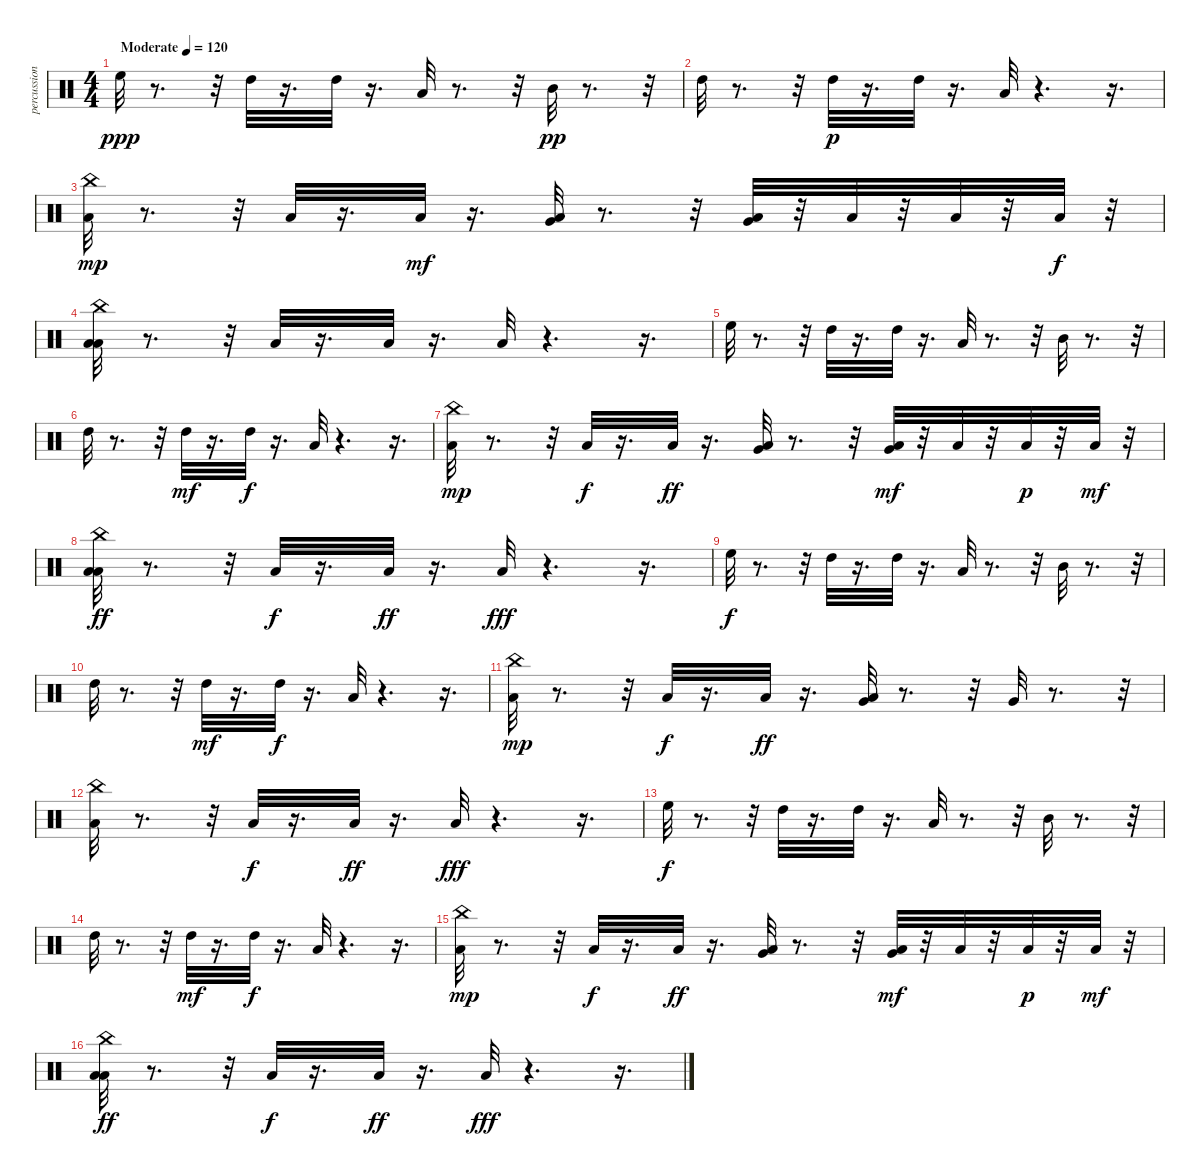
\track ("percussion" "percussion") {instrument percussion}
\staff {score}
\articulation defaults
\ts (4 4)
\tempo (120 "Moderate")
\clef neutral
\ks c "High Floor Tom (hit)".32{dy ppp}
r.8{d} r.32 "High Tom (hit)".32 r.16{d} "High Tom (hit)".32 r.16{d} "Low Tom (hit)".32 r.8{d} r.32 "Mid Tom (hit)".32{dy pp} r.8{d} r.32 |
"High Tom (hit)".32 r.8{d} r.32 "High Tom (hit)".32{dy p} r.16{d} "High Tom (hit)".32 r.16{d} "Low Tom (hit)".32 r.4{d} r.16{d} |
("Low Floor Tom (hit)" "China (hit)").32{dy mp} r.8{d} r.32 "Low Floor Tom (hit)".32 r.16{d} "Low Floor Tom (hit)".32{dy mf} r.16{d} ("Low Floor Tom (hit)" "Very Low Tom (hit)").32 r.8{d} r.32 ("Very Low Tom (hit)" "Low Floor Tom (hit)").32 r.32 "Low Floor Tom (hit)".32 r.32 "Low Floor Tom (hit)".32 r.32 "Low Floor Tom (hit)".32{dy f} r.32 |
("Low Floor Tom (hit)" "China (hit)" "Low Floor Tom (hit)").32 r.8{d} r.32 "Low Floor Tom (hit)".32 r.16{d} "Low Floor Tom (hit)".32 r.16{d} "Low Floor Tom (hit)".32 r.4{d} r.16{d} |
"High Floor Tom (hit)".32 r.8{d} r.32 "High Tom (hit)".32 r.16{d} "High Tom (hit)".32 r.16{d} "Low Tom (hit)".32 r.8{d} r.32 "Mid Tom (hit)".32 r.8{d} r.32 |
"High Tom (hit)".32 r.8{d} r.32 "High Tom (hit)".32{dy mf} r.16{d} "High Tom (hit)".32{dy f} r.16{d} "Low Tom (hit)".32 r.4{d} r.16{d} |
("Low Floor Tom (hit)" "China (hit)").32{dy mp} r.8{d} r.32 "Low Floor Tom (hit)".32{dy f} r.16{d} "Low Floor Tom (hit)".32{dy ff} r.16{d} ("Low Floor Tom (hit)" "Very Low Tom (hit)").32 r.8{d} r.32 ("Very Low Tom (hit)" "Low Floor Tom (hit)").32{dy mf} r.32 "Low Floor Tom (hit)".32 r.32 "Low Floor Tom (hit)".32{dy p} r.32 "Low Floor Tom (hit)".32{dy mf} r.32 |
("Low Floor Tom (hit)" "China (hit)" "Low Floor Tom (hit)").32{dy ff} r.8{d} r.32 "Low Floor Tom (hit)".32{dy f} r.16{d} "Low Floor Tom (hit)".32{dy ff} r.16{d} "Low Floor Tom (hit)".32{dy fff} r.4{d} r.16{d} |
"High Floor Tom (hit)".32{dy f} r.8{d} r.32 "High Tom (hit)".32 r.16{d} "High Tom (hit)".32 r.16{d} "Low Tom (hit)".32 r.8{d} r.32 "Mid Tom (hit)".32 r.8{d} r.32 |
"High Tom (hit)".32 r.8{d} r.32 "High Tom (hit)".32{dy mf} r.16{d} "High Tom (hit)".32{dy f} r.16{d} "Low Tom (hit)".32 r.4{d} r.16{d} |
("Low Floor Tom (hit)" "China (hit)").32{dy mp} r.8{d} r.32 "Low Floor Tom (hit)".32{dy f} r.16{d} "Low Floor Tom (hit)".32{dy ff} r.16{d} ("Low Floor Tom (hit)" "Very Low Tom (hit)").32 r.8{d} r.32 "Very Low Tom (hit)".32 r.8{d} r.32 |
("Low Floor Tom (hit)" "China (hit)").32 r.8{d} r.32 "Low Floor Tom (hit)".32{dy f} r.16{d} "Low Floor Tom (hit)".32{dy ff} r.16{d} "Low Floor Tom (hit)".32{dy fff} r.4{d} r.16{d} |
"High Floor Tom (hit)".32{dy f} r.8{d} r.32 "High Tom (hit)".32 r.16{d} "High Tom (hit)".32 r.16{d} "Low Tom (hit)".32 r.8{d} r.32 "Mid Tom (hit)".32 r.8{d} r.32 |
"High Tom (hit)".32 r.8{d} r.32 "High Tom (hit)".32{dy mf} r.16{d} "High Tom (hit)".32{dy f} r.16{d} "Low Tom (hit)".32 r.4{d} r.16{d} |
("Low Floor Tom (hit)" "China (hit)").32{dy mp} r.8{d} r.32 "Low Floor Tom (hit)".32{dy f} r.16{d} "Low Floor Tom (hit)".32{dy ff} r.16{d} ("Low Floor Tom (hit)" "Very Low Tom (hit)").32 r.8{d} r.32 ("Very Low Tom (hit)" "Low Floor Tom (hit)").32{dy mf} r.32 "Low Floor Tom (hit)".32 r.32 "Low Floor Tom (hit)".32{dy p} r.32 "Low Floor Tom (hit)".32{dy mf} r.32 |
("Low Floor Tom (hit)" "China (hit)" "Low Floor Tom (hit)").32{dy ff} r.8{d} r.32 "Low Floor Tom (hit)".32{dy f} r.16{d} "Low Floor Tom (hit)".32{dy ff} r.16{d} "Low Floor Tom (hit)".32{dy fff} r.4{d} r.16{d}
